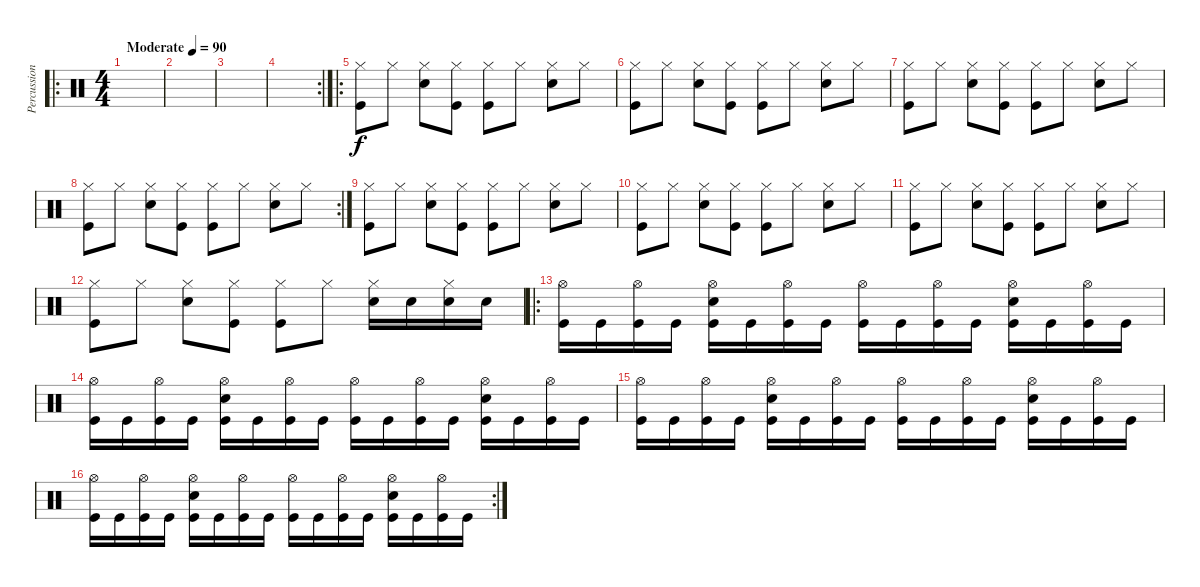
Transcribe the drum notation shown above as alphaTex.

\track ("Percussion" "Percussion") {instrument percussion}
\staff {score}
\articulation defaults
\ro
\ts (4 4)
\tempo (90 "Moderate")
\clef neutral
\ks c
|
|
|
\rc 2
|
\ro
("Hi-Hat (closed)" "Kick (hit)").8 "Hi-Hat (closed)".8 ("Hi-Hat (closed)" "Electric Snare (hit)").8 ("Hi-Hat (closed)" "Kick (hit)").8 ("Hi-Hat (closed)" "Kick (hit)").8 "Hi-Hat (closed)".8 ("Hi-Hat (closed)" "Electric Snare (hit)").8 "Hi-Hat (closed)".8 |
("Hi-Hat (closed)" "Kick (hit)").8 "Hi-Hat (closed)".8 ("Hi-Hat (closed)" "Electric Snare (hit)").8 ("Hi-Hat (closed)" "Kick (hit)").8 ("Hi-Hat (closed)" "Kick (hit)").8 "Hi-Hat (closed)".8 ("Hi-Hat (closed)" "Electric Snare (hit)").8 "Hi-Hat (closed)".8 |
("Hi-Hat (closed)" "Kick (hit)").8 "Hi-Hat (closed)".8 ("Hi-Hat (closed)" "Electric Snare (hit)").8 ("Hi-Hat (closed)" "Kick (hit)").8 ("Hi-Hat (closed)" "Kick (hit)").8 "Hi-Hat (closed)".8 ("Hi-Hat (closed)" "Electric Snare (hit)").8 "Hi-Hat (closed)".8 |
\rc 2
("Hi-Hat (closed)" "Kick (hit)").8 "Hi-Hat (closed)".8 ("Hi-Hat (closed)" "Electric Snare (hit)").8 ("Hi-Hat (closed)" "Kick (hit)").8 ("Hi-Hat (closed)" "Kick (hit)").8 "Hi-Hat (closed)".8 ("Hi-Hat (closed)" "Electric Snare (hit)").8 "Hi-Hat (closed)".8 |
("Hi-Hat (closed)" "Kick (hit)").8 "Hi-Hat (closed)".8 ("Hi-Hat (closed)" "Electric Snare (hit)").8 ("Hi-Hat (closed)" "Kick (hit)").8 ("Hi-Hat (closed)" "Kick (hit)").8 "Hi-Hat (closed)".8 ("Hi-Hat (closed)" "Electric Snare (hit)").8 "Hi-Hat (closed)".8 |
("Hi-Hat (closed)" "Kick (hit)").8 "Hi-Hat (closed)".8 ("Hi-Hat (closed)" "Electric Snare (hit)").8 ("Hi-Hat (closed)" "Kick (hit)").8 ("Hi-Hat (closed)" "Kick (hit)").8 "Hi-Hat (closed)".8 ("Hi-Hat (closed)" "Electric Snare (hit)").8 "Hi-Hat (closed)".8 |
("Hi-Hat (closed)" "Kick (hit)").8 "Hi-Hat (closed)".8 ("Hi-Hat (closed)" "Electric Snare (hit)").8 ("Hi-Hat (closed)" "Kick (hit)").8 ("Hi-Hat (closed)" "Kick (hit)").8 "Hi-Hat (closed)".8 ("Hi-Hat (closed)" "Electric Snare (hit)").8 "Hi-Hat (closed)".8 |
("Hi-Hat (closed)" "Kick (hit)").8 "Hi-Hat (closed)".8 ("Hi-Hat (closed)" "Electric Snare (hit)").8 ("Hi-Hat (closed)" "Kick (hit)").8 ("Hi-Hat (closed)" "Kick (hit)").8 "Hi-Hat (closed)".8 ("Hi-Hat (closed)" "Electric Snare (hit)").16 "Electric Snare (hit)".16 ("Hi-Hat (closed)" "Electric Snare (hit)").16 "Electric Snare (hit)".16 |
\ro
("Hi-Hat (open)" "Kick (hit)").16 "Kick (hit)".16 ("Hi-Hat (open)" "Kick (hit)").16 "Kick (hit)".16 ("Hi-Hat (open)" "Electric Snare (hit)" "Kick (hit)").16 "Kick (hit)".16 ("Hi-Hat (open)" "Kick (hit)").16 "Kick (hit)".16 ("Hi-Hat (open)" "Kick (hit)").16 "Kick (hit)".16 ("Hi-Hat (open)" "Kick (hit)").16 "Kick (hit)".16 ("Hi-Hat (open)" "Electric Snare (hit)" "Kick (hit)").16 "Kick (hit)".16 ("Hi-Hat (open)" "Kick (hit)").16 "Kick (hit)".16 |
("Hi-Hat (open)" "Kick (hit)").16 "Kick (hit)".16 ("Hi-Hat (open)" "Kick (hit)").16 "Kick (hit)".16 ("Hi-Hat (open)" "Electric Snare (hit)" "Kick (hit)").16 "Kick (hit)".16 ("Hi-Hat (open)" "Kick (hit)").16 "Kick (hit)".16 ("Hi-Hat (open)" "Kick (hit)").16 "Kick (hit)".16 ("Hi-Hat (open)" "Kick (hit)").16 "Kick (hit)".16 ("Hi-Hat (open)" "Electric Snare (hit)" "Kick (hit)").16 "Kick (hit)".16 ("Hi-Hat (open)" "Kick (hit)").16 "Kick (hit)".16 |
("Hi-Hat (open)" "Kick (hit)").16 "Kick (hit)".16 ("Hi-Hat (open)" "Kick (hit)").16 "Kick (hit)".16 ("Hi-Hat (open)" "Electric Snare (hit)" "Kick (hit)").16 "Kick (hit)".16 ("Hi-Hat (open)" "Kick (hit)").16 "Kick (hit)".16 ("Hi-Hat (open)" "Kick (hit)").16 "Kick (hit)".16 ("Hi-Hat (open)" "Kick (hit)").16 "Kick (hit)".16 ("Hi-Hat (open)" "Electric Snare (hit)" "Kick (hit)").16 "Kick (hit)".16 ("Hi-Hat (open)" "Kick (hit)").16 "Kick (hit)".16 |
\rc 2
("Hi-Hat (open)" "Kick (hit)").16 "Kick (hit)".16 ("Hi-Hat (open)" "Kick (hit)").16 "Kick (hit)".16 ("Hi-Hat (open)" "Electric Snare (hit)" "Kick (hit)").16 "Kick (hit)".16 ("Hi-Hat (open)" "Kick (hit)").16 "Kick (hit)".16 ("Hi-Hat (open)" "Kick (hit)").16 "Kick (hit)".16 ("Hi-Hat (open)" "Kick (hit)").16 "Kick (hit)".16 ("Hi-Hat (open)" "Electric Snare (hit)" "Kick (hit)").16 "Kick (hit)".16 ("Hi-Hat (open)" "Kick (hit)").16 "Kick (hit)".16
